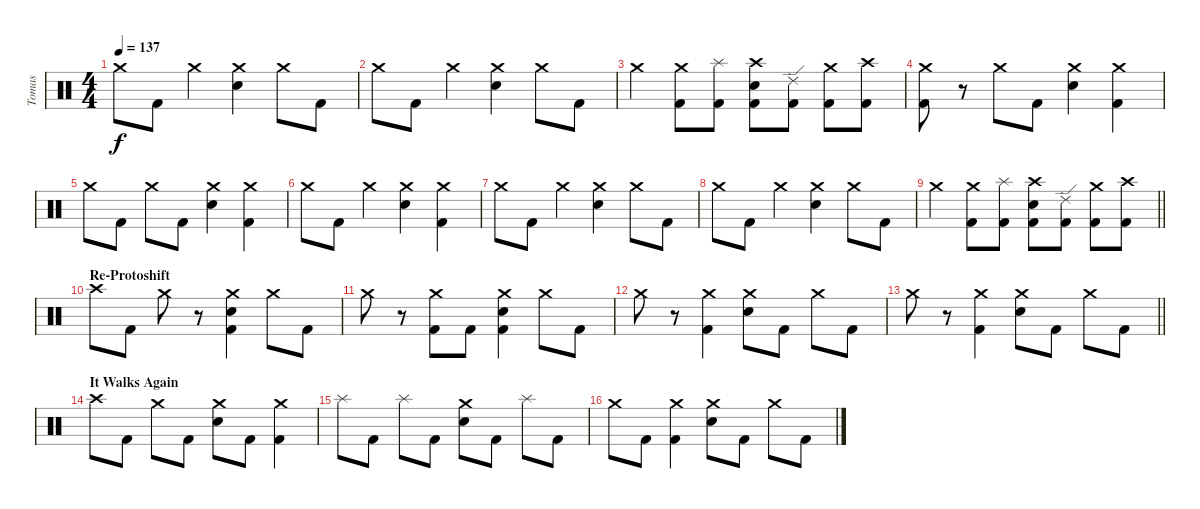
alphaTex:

\track ("Tomas" "Tomas") {instrument percussion}
\staff {score}
\articulation defaults
\ts (4 4)
\tempo 137
\clef neutral
\ks c "Crash medium (hit)".8{dy f} "Kick (hit) 2".8 "Crash medium (hit)".4
("Crash medium (hit)" "Electric Snare (hit)").4 "Crash medium (hit)".8 "Kick (hit) 2".8 |
"Crash medium (hit)".8 "Kick (hit) 2".8 "Crash medium (hit)".4 ("Crash medium (hit)" "Electric Snare (hit)").4 "Crash medium (hit)".8 "Kick (hit) 2".8 |
"Crash medium (hit)".4 ("Crash medium (hit)" "Kick (hit) 2").8 ("Splash (hit)" "Kick (hit) 2").8 ("Crash high (hit)" "Electric Snare (hit)" "Kick (hit) 2").8 ("Ride (edge) 2" "Kick (hit) 2").8 ("Crash medium (hit)" "Kick (hit) 2").8 ("Crash high (hit)" "Kick (hit) 2").8 |
("Crash medium (hit)" "Kick (hit) 2").8 r.8 "Crash medium (hit)".8 "Kick (hit) 2".8 ("Crash medium (hit)" "Electric Snare (hit)").4 ("Crash medium (hit)" "Kick (hit) 2").4 |
"Crash medium (hit)".8 "Kick (hit) 2".8 "Crash medium (hit)".8 "Kick (hit) 2".8 ("Crash medium (hit)" "Electric Snare (hit)").4 ("Crash medium (hit)" "Kick (hit) 2").4 |
"Crash medium (hit)".8 "Kick (hit) 2".8 "Crash medium (hit)".4 ("Crash medium (hit)" "Electric Snare (hit)").4 ("Crash medium (hit)" "Kick (hit) 2").4 |
"Crash medium (hit)".8 "Kick (hit) 2".8 "Crash medium (hit)".4 ("Crash medium (hit)" "Electric Snare (hit)").4 "Crash medium (hit)".8 "Kick (hit) 2".8 |
"Crash medium (hit)".8 "Kick (hit) 2".8 "Crash medium (hit)".4 ("Crash medium (hit)" "Electric Snare (hit)").4 "Crash medium (hit)".8 "Kick (hit) 2".8 |
\barLineRight lightlight "Crash medium (hit)".4
("Crash medium (hit)" "Kick (hit) 2").8 ("Splash (hit)" "Kick (hit) 2").8 ("Crash high (hit)" "Electric Snare (hit)" "Kick (hit) 2").8 ("Ride (edge) 2" "Kick (hit) 2").8 ("Crash medium (hit)" "Kick (hit) 2").8 ("Crash high (hit)" "Kick (hit) 2").8 |
\section ("" "Re-Protoshift")
"Crash high (hit)".8 "Kick (hit) 2".8 "Crash medium (hit)".8 r.8 ("Crash medium (hit)" "Electric Snare (hit)" "Kick (hit) 2").4 "Crash medium (hit)".8 "Kick (hit) 2".8 |
"Crash medium (hit)".8 r.8 ("Crash medium (hit)" "Kick (hit) 2").8 "Kick (hit) 2".8 ("Crash medium (hit)" "Electric Snare (hit)" "Kick (hit) 2").4 "Crash medium (hit)".8 "Kick (hit) 2".8 |
"Crash medium (hit)".8 r.8 ("Crash medium (hit)" "Kick (hit) 2").4 ("Crash medium (hit)" "Electric Snare (hit)").8 "Kick (hit) 2".8 "Crash medium (hit)".8 "Kick (hit) 2".8 |
\barLineRight lightlight "Crash medium (hit)".8
r.8 ("Crash medium (hit)" "Kick (hit) 2").4 ("Crash medium (hit)" "Electric Snare (hit)").8 "Kick (hit) 2".8 "Crash medium (hit)".8 "Kick (hit) 2".8 |
\section ("" "It Walks Again")
"Crash high (hit)".8 "Kick (hit) 2".8 "Crash medium (hit)".8 "Kick (hit) 2".8 ("Crash medium (hit)" "Electric Snare (hit)").8 "Kick (hit) 2".8 ("Crash medium (hit)" "Kick (hit) 2").4 |
"Splash (hit)".8 "Kick (hit) 2".8 "Splash (hit)".8 "Kick (hit) 2".8 ("Crash medium (hit)" "Electric Snare (hit)").8 "Kick (hit) 2".8 "Splash (hit)".8 "Kick (hit) 2".8 |
"Crash medium (hit)".8 "Kick (hit) 2".8 ("Crash medium (hit)" "Kick (hit) 2").4 ("Crash medium (hit)" "Electric Snare (hit)").8 "Kick (hit) 2".8 "Crash medium (hit)".8 "Kick (hit) 2".8
